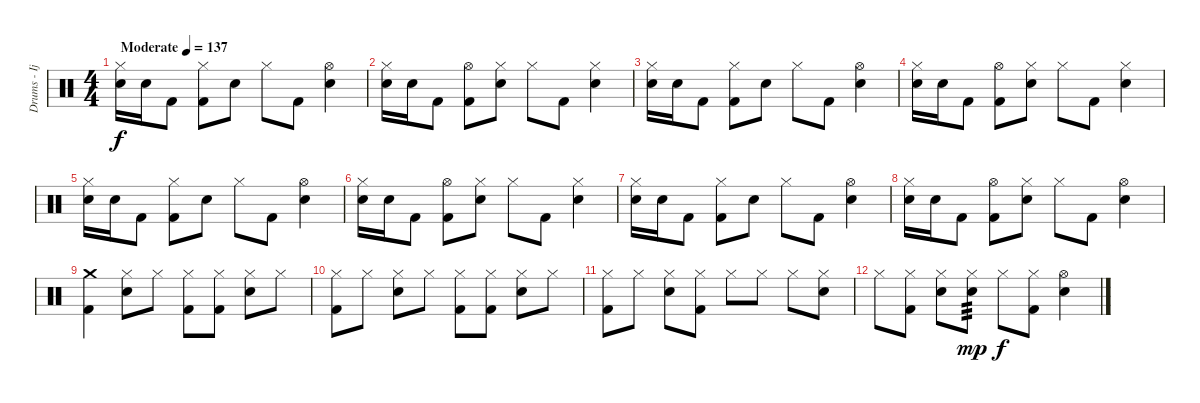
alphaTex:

\track ("Drums - Ijichi" "Drums - Ij") {instrument percussion}
\staff {score}
\articulation defaults
\ts (4 4)
\tempo (137 "Moderate")
\clef neutral
\ks c
("Hi-Hat (closed)" "Electric Snare (hit)").16{dy f} "Electric Snare (hit)".16 "Kick (hit) 2".8 ("Hi-Hat (closed)" "Kick (hit) 2").8 "Electric Snare (hit)".8 "Hi-Hat (closed)".8 "Kick (hit) 2".8 ("Hi-Hat (open)" "Electric Snare (hit)").4 |
("Hi-Hat (closed)" "Electric Snare (hit)").16 "Electric Snare (hit)".16 "Kick (hit) 2".8 ("Hi-Hat (open)" "Kick (hit) 2").8 ("Hi-Hat (closed)" "Electric Snare (hit)").8 "Hi-Hat (closed)".8 "Kick (hit) 2".8 ("Hi-Hat (closed)" "Electric Snare (hit)").4 |
("Hi-Hat (closed)" "Electric Snare (hit)").16 "Electric Snare (hit)".16 "Kick (hit) 2".8 ("Hi-Hat (closed)" "Kick (hit) 2").8 "Electric Snare (hit)".8 "Hi-Hat (closed)".8 "Kick (hit) 2".8 ("Hi-Hat (open)" "Electric Snare (hit)").4 |
("Hi-Hat (closed)" "Electric Snare (hit)").16 "Electric Snare (hit)".16 "Kick (hit) 2".8 ("Hi-Hat (open)" "Kick (hit) 2").8 ("Hi-Hat (closed)" "Electric Snare (hit)").8 "Hi-Hat (closed)".8 "Kick (hit) 2".8 ("Hi-Hat (closed)" "Electric Snare (hit)").4 |
("Hi-Hat (closed)" "Electric Snare (hit)").16 "Electric Snare (hit)".16 "Kick (hit) 2".8 ("Hi-Hat (closed)" "Kick (hit) 2").8 "Electric Snare (hit)".8 "Hi-Hat (closed)".8 "Kick (hit) 2".8 ("Hi-Hat (open)" "Electric Snare (hit)").4 |
("Hi-Hat (closed)" "Electric Snare (hit)").16 "Electric Snare (hit)".16 "Kick (hit) 2".8 ("Hi-Hat (open)" "Kick (hit) 2").8 ("Hi-Hat (closed)" "Electric Snare (hit)").8 "Hi-Hat (closed)".8 "Kick (hit) 2".8 ("Hi-Hat (closed)" "Electric Snare (hit)").4 |
("Hi-Hat (closed)" "Electric Snare (hit)").16 "Electric Snare (hit)".16 "Kick (hit) 2".8 ("Hi-Hat (closed)" "Kick (hit) 2").8 "Electric Snare (hit)".8 "Hi-Hat (closed)".8 "Kick (hit) 2".8 ("Hi-Hat (open)" "Electric Snare (hit)").4 |
("Hi-Hat (closed)" "Electric Snare (hit)").16 "Electric Snare (hit)".16 "Kick (hit) 2".8 ("Hi-Hat (open)" "Kick (hit) 2").8 ("Hi-Hat (closed)" "Electric Snare (hit)").8 "Hi-Hat (closed)".8 "Kick (hit) 2".8 ("Hi-Hat (open)" "Electric Snare (hit)").4 |
("Crash medium (hit)" "Kick (hit) 2").4 ("Hi-Hat (closed)" "Electric Snare (hit)").8 "Hi-Hat (closed)".8 ("Hi-Hat (closed)" "Kick (hit) 2").8 ("Hi-Hat (closed)" "Kick (hit) 2").8 ("Hi-Hat (closed)" "Electric Snare (hit)").8 "Hi-Hat (closed)".8 |
("Hi-Hat (closed)" "Kick (hit) 2").8 "Hi-Hat (closed)".8 ("Hi-Hat (closed)" "Electric Snare (hit)").8 "Hi-Hat (closed)".8 ("Hi-Hat (closed)" "Kick (hit) 2").8 ("Hi-Hat (closed)" "Kick (hit) 2").8 ("Hi-Hat (closed)" "Electric Snare (hit)").8 "Hi-Hat (closed)".8 |
("Hi-Hat (closed)" "Kick (hit) 2").8 "Hi-Hat (closed)".8 ("Hi-Hat (closed)" "Electric Snare (hit)").8 ("Hi-Hat (closed)" "Kick (hit) 2").8 "Hi-Hat (closed)".8 "Hi-Hat (closed)".8 "Hi-Hat (closed)".8 ("Hi-Hat (closed)" "Electric Snare (hit)").8 |
"Hi-Hat (closed)".8 ("Hi-Hat (closed)" "Kick (hit) 2").8 ("Hi-Hat (closed)" "Electric Snare (hit)").8 ("Hi-Hat (closed)" "Electric Snare (hit)").8{tp 3 dy mp} "Hi-Hat (closed)".8{dy f} ("Hi-Hat (closed)" "Kick (hit) 2").8 ("Hi-Hat (open)" "Electric Snare (hit)").4
